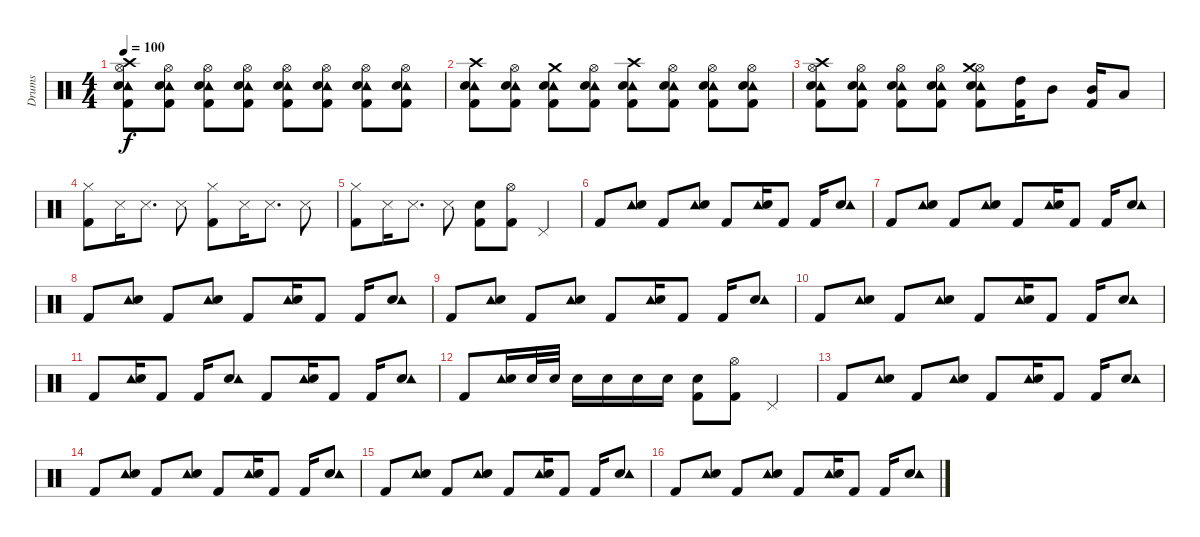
\track ("Drums" "Drums") {instrument percussion}
\staff {score}
\articulation defaults
\ts (4 4)
\tempo 100
\clef neutral
\ks c
("Kick (hit) 2" "Tambourine (hit)" "Electric Snare (hit)" "Hi-Hat (open)" "Crash high (hit)").8{dy f} ("Kick (hit) 2" "Tambourine (hit)" "Electric Snare (hit)" "Hi-Hat (open)").8 ("Kick (hit) 2" "Tambourine (hit)" "Electric Snare (hit)" "Hi-Hat (open)").8 ("Kick (hit) 2" "Tambourine (hit)" "Electric Snare (hit)" "Hi-Hat (open)").8 ("Kick (hit) 2" "Tambourine (hit)" "Electric Snare (hit)" "Hi-Hat (open)").8 ("Kick (hit) 2" "Tambourine (hit)" "Electric Snare (hit)" "Hi-Hat (open)").8 ("Kick (hit) 2" "Tambourine (hit)" "Electric Snare (hit)" "Hi-Hat (open)").8 ("Kick (hit) 2" "Tambourine (hit)" "Electric Snare (hit)" "Hi-Hat (open)").8 |
("Kick (hit) 2" "Tambourine (hit)" "Electric Snare (hit)" "Crash high (hit)").8 ("Kick (hit) 2" "Tambourine (hit)" "Electric Snare (hit)" "Hi-Hat (open)").8 ("Kick (hit) 2" "Tambourine (hit)" "Electric Snare (hit)" "Crash medium (hit)").8 ("Kick (hit) 2" "Tambourine (hit)" "Electric Snare (hit)" "Hi-Hat (open)").8 ("Kick (hit) 2" "Tambourine (hit)" "Electric Snare (hit)" "Crash high (hit)").8 ("Kick (hit) 2" "Tambourine (hit)" "Electric Snare (hit)" "Hi-Hat (open)").8 ("Kick (hit) 2" "Tambourine (hit)" "Electric Snare (hit)" "Hi-Hat (open)").8 ("Kick (hit) 2" "Tambourine (hit)" "Electric Snare (hit)" "Hi-Hat (open)").8 |
("Kick (hit) 2" "Tambourine (hit)" "Electric Snare (hit)" "Hi-Hat (open)" "Crash high (hit)").8 ("Kick (hit) 2" "Tambourine (hit)" "Electric Snare (hit)" "Hi-Hat (open)").8 ("Kick (hit) 2" "Tambourine (hit)" "Electric Snare (hit)" "Hi-Hat (open)").8 ("Kick (hit) 2" "Tambourine (hit)" "Electric Snare (hit)" "Hi-Hat (open)").8 ("Kick (hit) 2" "Tambourine (hit)" "Electric Snare (hit)" "Hi-Hat (open)" "Crash medium (hit)").8 ("High Tom (hit)" "Kick (hit) 2").16 "Mid Tom (hit)".8 ("Mid Tom (hit)" "Kick (hit) 2").16 "Low Tom (hit)".8 |
("Hi-Hat (closed)" "Kick (hit) 2").8 "Snare (side stick) 3".16 "Snare (side stick) 3".8{d} "Snare (side stick) 3".8 ("Hi-Hat (closed)" "Kick (hit) 2").8 "Snare (side stick) 3".16 "Snare (side stick) 3".8{d} "Snare (side stick) 3".8 |
("Hi-Hat (closed)" "Kick (hit) 2").8 "Snare (side stick) 3".16 "Snare (side stick) 3".8{d} "Snare (side stick) 3".8 ("Kick (hit) 2" "Electric Snare (hit)").8 ("Kick (hit) 2" "Hi-Hat (open)").8 "Pedal Hi-Hat (hit)".4 |
"Kick (hit) 2".8 ("Tambourine (hit)" "Electric Snare (hit)").8 "Kick (hit) 2".8 ("Tambourine (hit)" "Electric Snare (hit)").8 "Kick (hit) 2".8 ("Tambourine (hit)" "Electric Snare (hit)").16 "Kick (hit) 2".8 "Kick (hit) 2".16 ("Electric Snare (hit)" "Tambourine (hit)").8 |
"Kick (hit) 2".8 ("Tambourine (hit)" "Electric Snare (hit)").8 "Kick (hit) 2".8 ("Tambourine (hit)" "Electric Snare (hit)").8 "Kick (hit) 2".8 ("Tambourine (hit)" "Electric Snare (hit)").16 "Kick (hit) 2".8 "Kick (hit) 2".16 ("Electric Snare (hit)" "Tambourine (hit)").8 |
"Kick (hit) 2".8 ("Tambourine (hit)" "Electric Snare (hit)").8 "Kick (hit) 2".8 ("Tambourine (hit)" "Electric Snare (hit)").8 "Kick (hit) 2".8 ("Tambourine (hit)" "Electric Snare (hit)").16 "Kick (hit) 2".8 "Kick (hit) 2".16 ("Electric Snare (hit)" "Tambourine (hit)").8 |
"Kick (hit) 2".8 ("Tambourine (hit)" "Electric Snare (hit)").8 "Kick (hit) 2".8 ("Tambourine (hit)" "Electric Snare (hit)").8 "Kick (hit) 2".8 ("Tambourine (hit)" "Electric Snare (hit)").16 "Kick (hit) 2".8 "Kick (hit) 2".16 ("Electric Snare (hit)" "Tambourine (hit)").8 |
"Kick (hit) 2".8 ("Tambourine (hit)" "Electric Snare (hit)").8 "Kick (hit) 2".8 ("Tambourine (hit)" "Electric Snare (hit)").8 "Kick (hit) 2".8 ("Tambourine (hit)" "Electric Snare (hit)").16 "Kick (hit) 2".8 "Kick (hit) 2".16 ("Electric Snare (hit)" "Tambourine (hit)").8 |
"Kick (hit) 2".8 ("Tambourine (hit)" "Electric Snare (hit)").16 "Kick (hit) 2".8 "Kick (hit) 2".16 ("Electric Snare (hit)" "Tambourine (hit)").8 "Kick (hit) 2".8 ("Tambourine (hit)" "Electric Snare (hit)").16 "Kick (hit) 2".8 "Kick (hit) 2".16 ("Electric Snare (hit)" "Tambourine (hit)").8 |
"Kick (hit) 2".8 ("Tambourine (hit)" "Electric Snare (hit)").16 "Electric Snare (hit)".32 "Electric Snare (hit)".32 "Electric Snare (hit)".16 "Electric Snare (hit)".16 "Electric Snare (hit)".16 "Electric Snare (hit)".16 ("Kick (hit) 2" "Electric Snare (hit)").8 ("Kick (hit) 2" "Hi-Hat (open)").8 "Pedal Hi-Hat (hit)".4 |
"Kick (hit) 2".8 ("Tambourine (hit)" "Electric Snare (hit)").8 "Kick (hit) 2".8 ("Tambourine (hit)" "Electric Snare (hit)").8 "Kick (hit) 2".8 ("Tambourine (hit)" "Electric Snare (hit)").16 "Kick (hit) 2".8 "Kick (hit) 2".16 ("Electric Snare (hit)" "Tambourine (hit)").8 |
"Kick (hit) 2".8 ("Tambourine (hit)" "Electric Snare (hit)").8 "Kick (hit) 2".8 ("Tambourine (hit)" "Electric Snare (hit)").8 "Kick (hit) 2".8 ("Tambourine (hit)" "Electric Snare (hit)").16 "Kick (hit) 2".8 "Kick (hit) 2".16 ("Electric Snare (hit)" "Tambourine (hit)").8 |
"Kick (hit) 2".8 ("Tambourine (hit)" "Electric Snare (hit)").8 "Kick (hit) 2".8 ("Tambourine (hit)" "Electric Snare (hit)").8 "Kick (hit) 2".8 ("Tambourine (hit)" "Electric Snare (hit)").16 "Kick (hit) 2".8 "Kick (hit) 2".16 ("Electric Snare (hit)" "Tambourine (hit)").8 |
"Kick (hit) 2".8 ("Tambourine (hit)" "Electric Snare (hit)").8 "Kick (hit) 2".8 ("Tambourine (hit)" "Electric Snare (hit)").8 "Kick (hit) 2".8 ("Tambourine (hit)" "Electric Snare (hit)").16 "Kick (hit) 2".8 "Kick (hit) 2".16 ("Electric Snare (hit)" "Tambourine (hit)").8
